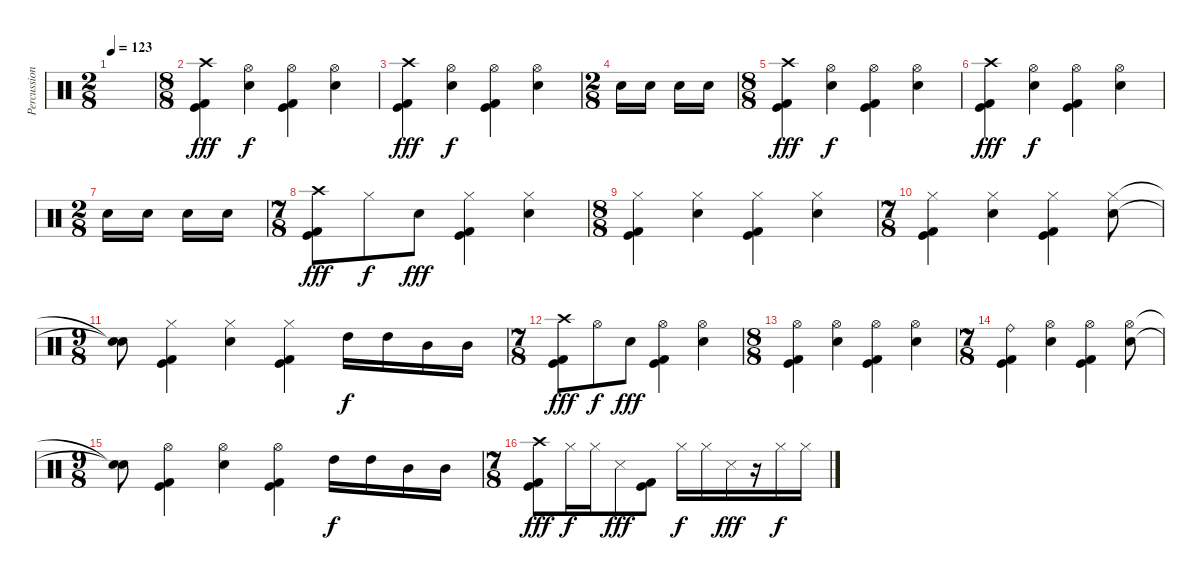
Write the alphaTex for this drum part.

\track ("Percussion" "Percussion") {instrument percussion}
\staff {score}
\articulation defaults
\ts (2 8)
\tempo 123
\clef neutral
\ks c
|
\ts (8 8)
("Crash high (hit)" "Kick (hit) 2" "Kick (hit)").4{dy fff} ("Hi-Hat (open)" "Electric Snare (hit)").4{dy f} ("Hi-Hat (open)" "Kick (hit)" "Kick (hit) 2").4 ("Hi-Hat (open)" "Electric Snare (hit)").4 |
("Crash high (hit)" "Kick (hit) 2" "Kick (hit)").4{dy fff} ("Hi-Hat (open)" "Electric Snare (hit)").4{dy f} ("Hi-Hat (open)" "Kick (hit)" "Kick (hit) 2").4 ("Hi-Hat (open)" "Electric Snare (hit)").4 |
\ts (2 8)
"Electric Snare (hit)".16 "Electric Snare (hit)".16 "Electric Snare (hit)".16 "Electric Snare (hit)".16 |
\ts (8 8)
("Crash high (hit)" "Kick (hit) 2" "Kick (hit)").4{dy fff} ("Hi-Hat (open)" "Electric Snare (hit)").4{dy f} ("Hi-Hat (open)" "Kick (hit)" "Kick (hit) 2").4 ("Hi-Hat (open)" "Electric Snare (hit)").4 |
("Crash high (hit)" "Kick (hit) 2" "Kick (hit)").4{dy fff} ("Hi-Hat (open)" "Electric Snare (hit)").4{dy f} ("Hi-Hat (open)" "Kick (hit)" "Kick (hit) 2").4 ("Hi-Hat (open)" "Electric Snare (hit)").4 |
\ts (2 8)
"Electric Snare (hit)".16 "Electric Snare (hit)".16 "Electric Snare (hit)".16 "Electric Snare (hit)".16 |
\ts (7 8)
("Crash high (hit)" "Kick (hit) 2" "Kick (hit)").8{dy fff} "Hi-Hat (closed)".8{dy f} "Electric Snare (hit)".8{dy fff} ("Hi-Hat (closed)" "Kick (hit) 2" "Kick (hit)").4 ("Hi-Hat (closed)" "Electric Snare (hit)").4 |
\ts (8 8)
("Hi-Hat (closed)" "Kick (hit) 2" "Kick (hit)").4 ("Hi-Hat (closed)" "Electric Snare (hit)").4 ("Hi-Hat (closed)" "Kick (hit) 2" "Kick (hit)").4 ("Hi-Hat (closed)" "Electric Snare (hit)").4 |
\ts (7 8)
("Hi-Hat (closed)" "Kick (hit) 2" "Kick (hit)").4 ("Hi-Hat (closed)" "Electric Snare (hit)").4 ("Hi-Hat (closed)" "Kick (hit) 2" "Kick (hit)").4 ("Hi-Hat (closed)" "Electric Snare (hit)").8 |
\ts (9 8)
("Snare (hit)"{t} "Snare (hit)"{t}).8 ("Hi-Hat (closed)" "Kick (hit) 2" "Kick (hit)").4 ("Hi-Hat (closed)" "Electric Snare (hit)").4 ("Hi-Hat (closed)" "Kick (hit) 2" "Kick (hit)").4 "High Tom (hit)".16{dy f} "High Tom (hit)".16 "Mid Tom (hit)".16 "Mid Tom (hit)".16 |
\ts (7 8)
("Crash high (hit)" "Kick (hit) 2" "Kick (hit)").8{dy fff} "Hi-Hat (open)".8{dy f} "Electric Snare (hit)".8{dy fff} ("Hi-Hat (open)" "Kick (hit) 2" "Kick (hit)").4 ("Hi-Hat (open)" "Electric Snare (hit)").4 |
\ts (8 8)
("Hi-Hat (open)" "Kick (hit) 2" "Kick (hit)").4 ("Hi-Hat (open)" "Electric Snare (hit)").4 ("Hi-Hat (open)" "Kick (hit) 2" "Kick (hit)").4 ("Hi-Hat (open)" "Electric Snare (hit)").4 |
\ts (7 8)
("Ride (bell)" "Kick (hit) 2" "Kick (hit)").4 ("Hi-Hat (open)" "Electric Snare (hit)").4 ("Hi-Hat (open)" "Kick (hit) 2" "Kick (hit)").4 ("Hi-Hat (open)" "Electric Snare (hit)").8 |
\ts (9 8)
("Snare (hit)"{t} "Snare (hit)"{t}).8 ("Hi-Hat (open)" "Kick (hit) 2" "Kick (hit)").4 ("Hi-Hat (open)" "Electric Snare (hit)").4 ("Hi-Hat (open)" "Kick (hit) 2" "Kick (hit)").4 "High Tom (hit)".16{dy f} "High Tom (hit)".16 "Mid Tom (hit)".16 "Mid Tom (hit)".16 |
\ts (7 8)
("Crash high (hit)" "Kick (hit) 2" "Kick (hit)").8{dy fff} "Hi-Hat (closed)".16{dy f} "Hi-Hat (closed)".16 "Snare (side stick) 3".8{dy fff} ("Kick (hit) 2" "Kick (hit)").8 "Hi-Hat (closed)".16{dy f} "Hi-Hat (closed)".16 "Snare (side stick) 3".16{dy fff} r.16 "Hi-Hat (closed)".16{dy f} "Hi-Hat (closed)".16
